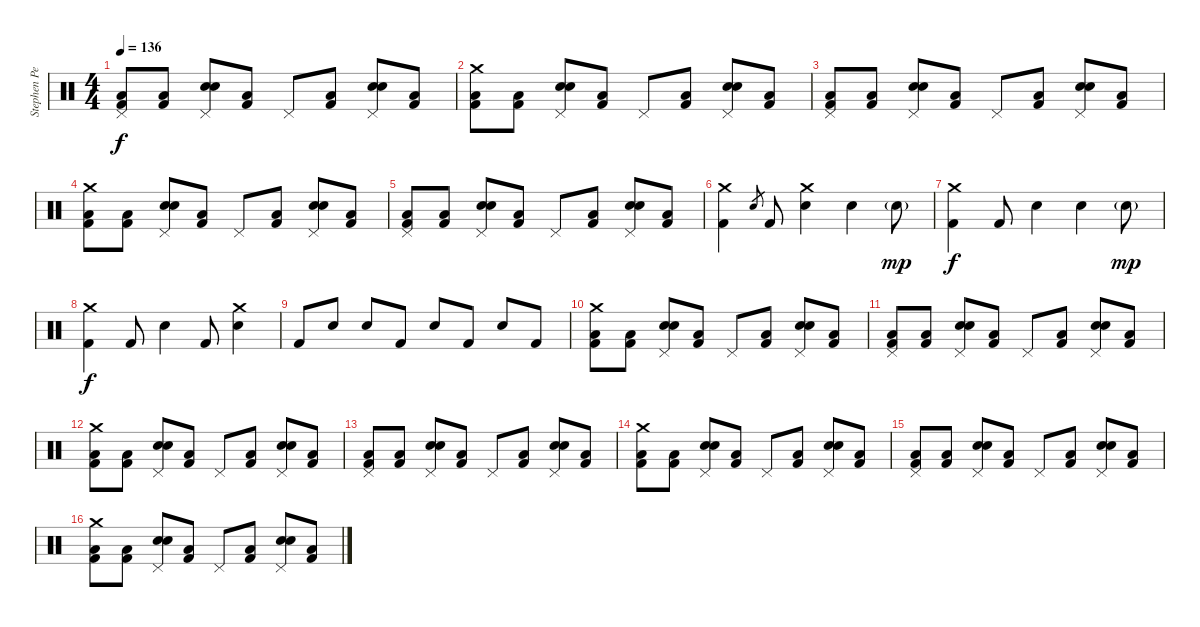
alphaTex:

\track ("Stephen Perkins (Drums)" "Stephen Pe") {instrument percussion}
\staff {score}
\articulation defaults
\ts (4 4)
\tempo 136
\clef neutral
\ks c
("Pedal Hi-Hat (hit)" "Low Floor Tom (hit)" "Kick (hit) 2").8{dy f} ("Low Floor Tom (hit)" "Kick (hit) 2").8 ("Pedal Hi-Hat (hit)" "Electric Snare (hit)" "Snare (hit) 2").8 ("Low Floor Tom (hit)" "Kick (hit) 2").8 "Pedal Hi-Hat (hit)".8 ("Low Floor Tom (hit)" "Kick (hit) 2").8 ("Pedal Hi-Hat (hit)" "Electric Snare (hit)" "Snare (hit) 2").8 ("Low Tom (hit)" "Kick (hit) 2").8 |
("Crash medium (hit)" "Low Floor Tom (hit)" "Kick (hit) 2").8 ("Low Floor Tom (hit)" "Kick (hit) 2").8 ("Pedal Hi-Hat (hit)" "Electric Snare (hit)" "Snare (hit) 2").8 ("Low Floor Tom (hit)" "Kick (hit) 2").8 "Pedal Hi-Hat (hit)".8 ("Low Floor Tom (hit)" "Kick (hit) 2").8 ("Pedal Hi-Hat (hit)" "Electric Snare (hit)" "Snare (hit) 2").8 ("Low Tom (hit)" "Kick (hit) 2").8 |
("Pedal Hi-Hat (hit)" "Low Floor Tom (hit)" "Kick (hit) 2").8 ("Low Floor Tom (hit)" "Kick (hit) 2").8 ("Pedal Hi-Hat (hit)" "Electric Snare (hit)" "Snare (hit) 2").8 ("Low Floor Tom (hit)" "Kick (hit) 2").8 "Pedal Hi-Hat (hit)".8 ("Low Floor Tom (hit)" "Kick (hit) 2").8 ("Pedal Hi-Hat (hit)" "Electric Snare (hit)" "Snare (hit) 2").8 ("Low Tom (hit)" "Kick (hit) 2").8 |
("Crash medium (hit)" "Low Floor Tom (hit)" "Kick (hit) 2").8 ("Low Floor Tom (hit)" "Kick (hit) 2").8 ("Pedal Hi-Hat (hit)" "Electric Snare (hit)" "Snare (hit) 2").8 ("Low Floor Tom (hit)" "Kick (hit) 2").8 "Pedal Hi-Hat (hit)".8 ("Low Floor Tom (hit)" "Kick (hit) 2").8 ("Pedal Hi-Hat (hit)" "Electric Snare (hit)" "Snare (hit) 2").8 ("Low Tom (hit)" "Kick (hit) 2").8 |
("Pedal Hi-Hat (hit)" "Low Floor Tom (hit)" "Kick (hit) 2").8 ("Low Floor Tom (hit)" "Kick (hit) 2").8 ("Pedal Hi-Hat (hit)" "Electric Snare (hit)" "Snare (hit) 2").8 ("Low Floor Tom (hit)" "Kick (hit) 2").8 "Pedal Hi-Hat (hit)".8 ("Low Floor Tom (hit)" "Kick (hit) 2").8 ("Pedal Hi-Hat (hit)" "Electric Snare (hit)" "Snare (hit) 2").8 ("Low Tom (hit)" "Kick (hit) 2").8 |
("Crash medium (hit)" "Kick (hit) 2").4 "Electric Snare (hit)".8{gr} "Kick (hit) 2".8 ("Crash medium (hit)" "Electric Snare (hit)").4 "Electric Snare (hit)".4 "Electric Snare (hit)"{g}.8{dy mp} |
("Crash medium (hit)" "Kick (hit) 2").4{dy f} "Kick (hit) 2".8 "Electric Snare (hit)".4 "Electric Snare (hit)".4 "Electric Snare (hit)"{g}.8{dy mp} |
("Crash medium (hit)" "Kick (hit) 2").4{dy f} "Kick (hit) 2".8 "Electric Snare (hit)".4 "Kick (hit) 2".8 ("Crash medium (hit)" "Electric Snare (hit)").4 |
"Kick (hit) 2".8 "Electric Snare (hit)".8 "Electric Snare (hit)".8 "Kick (hit) 2".8 "Electric Snare (hit)".8 "Kick (hit) 2".8 "Electric Snare (hit)".8 "Kick (hit) 2".8 |
("Crash medium (hit)" "Low Floor Tom (hit)" "Kick (hit) 2").8 ("Low Floor Tom (hit)" "Kick (hit) 2").8 ("Pedal Hi-Hat (hit)" "Electric Snare (hit)" "Snare (hit) 2").8 ("Low Floor Tom (hit)" "Kick (hit) 2").8 "Pedal Hi-Hat (hit)".8 ("Low Floor Tom (hit)" "Kick (hit) 2").8 ("Pedal Hi-Hat (hit)" "Electric Snare (hit)" "Snare (hit) 2").8 ("Low Tom (hit)" "Kick (hit) 2").8 |
("Pedal Hi-Hat (hit)" "Low Floor Tom (hit)" "Kick (hit) 2").8 ("Low Floor Tom (hit)" "Kick (hit) 2").8 ("Pedal Hi-Hat (hit)" "Electric Snare (hit)" "Snare (hit) 2").8 ("Low Floor Tom (hit)" "Kick (hit) 2").8 "Pedal Hi-Hat (hit)".8 ("Low Floor Tom (hit)" "Kick (hit) 2").8 ("Pedal Hi-Hat (hit)" "Electric Snare (hit)" "Snare (hit) 2").8 ("Low Tom (hit)" "Kick (hit) 2").8 |
("Crash medium (hit)" "Low Floor Tom (hit)" "Kick (hit) 2").8 ("Low Floor Tom (hit)" "Kick (hit) 2").8 ("Pedal Hi-Hat (hit)" "Electric Snare (hit)" "Snare (hit) 2").8 ("Low Floor Tom (hit)" "Kick (hit) 2").8 "Pedal Hi-Hat (hit)".8 ("Low Floor Tom (hit)" "Kick (hit) 2").8 ("Pedal Hi-Hat (hit)" "Electric Snare (hit)" "Snare (hit) 2").8 ("Low Tom (hit)" "Kick (hit) 2").8 |
("Pedal Hi-Hat (hit)" "Low Floor Tom (hit)" "Kick (hit) 2").8 ("Low Floor Tom (hit)" "Kick (hit) 2").8 ("Pedal Hi-Hat (hit)" "Electric Snare (hit)" "Snare (hit) 2").8 ("Low Floor Tom (hit)" "Kick (hit) 2").8 "Pedal Hi-Hat (hit)".8 ("Low Floor Tom (hit)" "Kick (hit) 2").8 ("Pedal Hi-Hat (hit)" "Electric Snare (hit)" "Snare (hit) 2").8 ("Low Tom (hit)" "Kick (hit) 2").8 |
("Crash medium (hit)" "Low Floor Tom (hit)" "Kick (hit) 2").8 ("Low Floor Tom (hit)" "Kick (hit) 2").8 ("Pedal Hi-Hat (hit)" "Electric Snare (hit)" "Snare (hit) 2").8 ("Low Floor Tom (hit)" "Kick (hit) 2").8 "Pedal Hi-Hat (hit)".8 ("Low Floor Tom (hit)" "Kick (hit) 2").8 ("Pedal Hi-Hat (hit)" "Electric Snare (hit)" "Snare (hit) 2").8 ("Low Tom (hit)" "Kick (hit) 2").8 |
("Pedal Hi-Hat (hit)" "Low Floor Tom (hit)" "Kick (hit) 2").8 ("Low Floor Tom (hit)" "Kick (hit) 2").8 ("Pedal Hi-Hat (hit)" "Electric Snare (hit)" "Snare (hit) 2").8 ("Low Floor Tom (hit)" "Kick (hit) 2").8 "Pedal Hi-Hat (hit)".8 ("Low Floor Tom (hit)" "Kick (hit) 2").8 ("Pedal Hi-Hat (hit)" "Electric Snare (hit)" "Snare (hit) 2").8 ("Low Tom (hit)" "Kick (hit) 2").8 |
("Crash medium (hit)" "Low Floor Tom (hit)" "Kick (hit) 2").8 ("Low Floor Tom (hit)" "Kick (hit) 2").8 ("Pedal Hi-Hat (hit)" "Electric Snare (hit)" "Snare (hit) 2").8 ("Low Floor Tom (hit)" "Kick (hit) 2").8 "Pedal Hi-Hat (hit)".8 ("Low Floor Tom (hit)" "Kick (hit) 2").8 ("Pedal Hi-Hat (hit)" "Electric Snare (hit)" "Snare (hit) 2").8 ("Low Tom (hit)" "Kick (hit) 2").8
